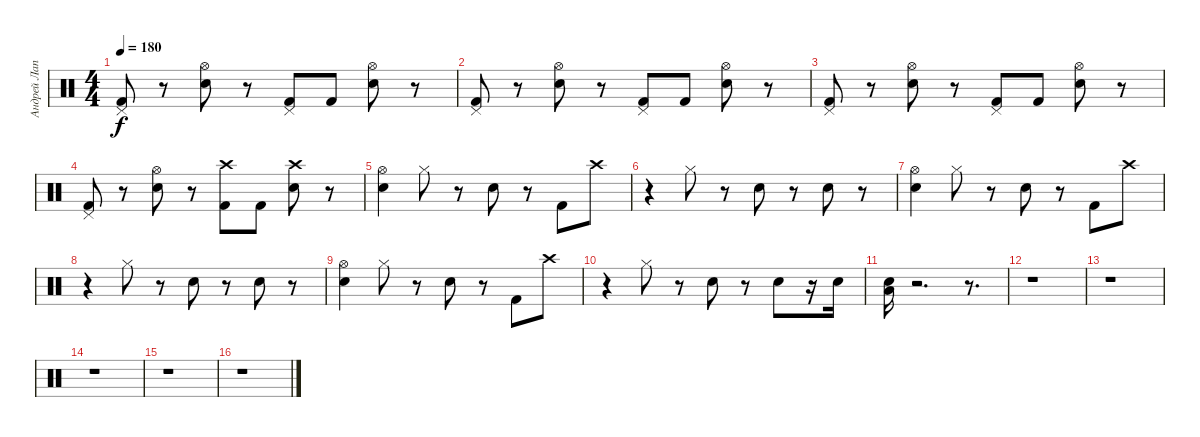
\track ("Андрей Лаптев" "Андрей Лап") {instrument percussion}
\staff {score}
\articulation defaults
\ts (4 4)
\tempo 180
\clef neutral
\ks c
("Kick (hit) 2" "Pedal Hi-Hat (hit)").8{dy f} r.8 ("Snare (hit) 2" "Hi-Hat (open)").8 r.8 ("Kick (hit) 2" "Pedal Hi-Hat (hit)").8 "Kick (hit) 2".8 ("Snare (hit) 2" "Hi-Hat (open)").8 r.8 |
("Kick (hit) 2" "Pedal Hi-Hat (hit)").8 r.8 ("Snare (hit) 2" "Hi-Hat (open)").8 r.8 ("Kick (hit) 2" "Pedal Hi-Hat (hit)").8 "Kick (hit) 2".8 ("Snare (hit) 2" "Hi-Hat (open)").8 r.8 |
("Kick (hit) 2" "Pedal Hi-Hat (hit)").8 r.8 ("Snare (hit) 2" "Hi-Hat (open)").8 r.8 ("Kick (hit) 2" "Pedal Hi-Hat (hit)").8 "Kick (hit) 2".8 ("Snare (hit) 2" "Hi-Hat (open)").8 r.8 |
("Kick (hit) 2" "Pedal Hi-Hat (hit)").8 r.8 ("Snare (hit) 2" "Hi-Hat (open)").8 r.8 ("Kick (hit) 2" "Crash high (hit)").8 "Kick (hit) 2".8 ("Snare (hit) 2" "Crash high (hit)").8 r.8 |
("Snare (hit) 2" "Hi-Hat (open)").4 "Hi-Hat (closed)".8 r.8 "Snare (hit) 2".8 r.8 "Kick (hit) 2".8 "Crash high (hit)".8 |
r.4 "Hi-Hat (closed)".8 r.8 "Snare (hit) 2".8 r.8 "Snare (hit) 2".8 r.8 |
("Snare (hit) 2" "Hi-Hat (open)").4 "Hi-Hat (closed)".8 r.8 "Snare (hit) 2".8 r.8 "Kick (hit) 2".8 "Crash high (hit)".8 |
r.4 "Hi-Hat (closed)".8 r.8 "Snare (hit) 2".8 r.8 "Snare (hit) 2".8 r.8 |
("Snare (hit) 2" "Hi-Hat (open)").4 "Hi-Hat (closed)".8 r.8 "Snare (hit) 2".8 r.8 "Kick (hit) 2".8 "Crash high (hit)".8 |
r.4 "Hi-Hat (closed)".8 r.8 "Snare (hit) 2".8 r.8 "Snare (hit) 2".8 r.16 "Snare (hit) 2".16 |
("Electric Snare (hit)" "Low Tom (hit)").16 r.2{d} r.8{d} |
r.1 |
r.1 |
r.1 |
r.1 |
r.1
